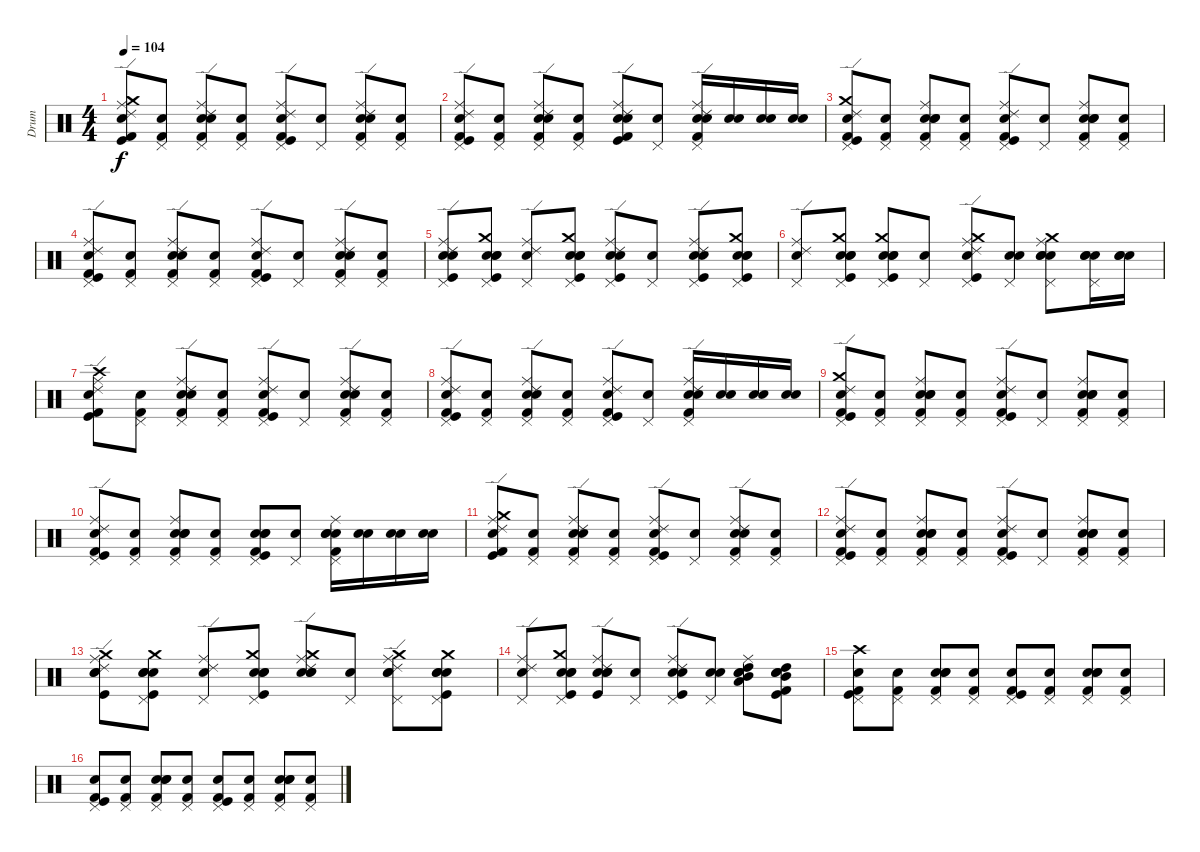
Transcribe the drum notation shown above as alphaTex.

\track ("Drum" "Drum") {instrument percussion}
\staff {score}
\articulation defaults
\ts (4 4)
\tempo 104
\clef neutral
\ks c
("Snare (hit)" "Kick (hit) 2" "Ride (middle)" "Ride (edge) 2" "Crash medium (hit)" "Kick (hit)").8{dy f} ("Snare (hit)" "Kick (hit) 2" "Pedal Hi-Hat (hit)").8 ("Snare (hit)" "Ride (middle)" "Ride (edge) 2" "Pedal Hi-Hat (hit)" "Snare (hit) 2" "Kick (hit) 2").8 ("Snare (hit)" "Kick (hit) 2" "Pedal Hi-Hat (hit)").8 ("Snare (hit)" "Kick (hit) 2" "Ride (middle)" "Ride (edge) 2" "Pedal Hi-Hat (hit)" "Kick (hit)").8 ("Snare (hit)" "Pedal Hi-Hat (hit)").8 ("Snare (hit)" "Ride (middle)" "Ride (edge) 2" "Pedal Hi-Hat (hit)" "Electric Snare (hit)" "Kick (hit) 2").8 ("Snare (hit)" "Kick (hit) 2" "Pedal Hi-Hat (hit)").8 |
("Snare (hit)" "Kick (hit) 2" "Ride (middle)" "Ride (edge) 2" "Kick (hit)" "Pedal Hi-Hat (hit)").8 ("Snare (hit)" "Kick (hit) 2" "Pedal Hi-Hat (hit)").8 ("Snare (hit)" "Ride (middle)" "Ride (edge) 2" "Kick (hit) 2" "Electric Snare (hit)" "Pedal Hi-Hat (hit)").8 ("Snare (hit)" "Kick (hit) 2" "Pedal Hi-Hat (hit)").8 ("Snare (hit)" "Kick (hit) 2" "Ride (middle)" "Ride (edge) 2" "Kick (hit)" "Snare (hit) 2").8 ("Snare (hit)" "Pedal Hi-Hat (hit)").8 ("Snare (hit)" "Ride (middle)" "Ride (edge) 2" "Kick (hit) 2" "Snare (hit) 2" "Pedal Hi-Hat (hit)").16 ("Snare (hit)" "Snare (hit) 2").16 ("Snare (hit)" "Snare (hit) 2").16 ("Snare (hit)" "Snare (hit) 2").16 |
("Snare (hit)" "Kick (hit)" "Pedal Hi-Hat (hit)" "Crash medium (hit)" "Ride (edge) 2" "Kick (hit) 2").8 ("Snare (hit)" "Pedal Hi-Hat (hit)" "Kick (hit) 2").8 ("Snare (hit)" "Kick (hit) 2" "Electric Snare (hit)" "Snare (hit) 2" "Pedal Hi-Hat (hit)" "Ride (middle)").8 ("Snare (hit)" "Pedal Hi-Hat (hit)" "Kick (hit) 2").8 ("Snare (hit)" "Kick (hit)" "Pedal Hi-Hat (hit)" "Ride (edge) 2" "Ride (middle)" "Kick (hit) 2").8 ("Snare (hit)" "Pedal Hi-Hat (hit)").8 ("Snare (hit)" "Kick (hit) 2" "Snare (hit) 2" "Electric Snare (hit)" "Pedal Hi-Hat (hit)" "Ride (middle)").8 ("Snare (hit)" "Pedal Hi-Hat (hit)" "Kick (hit) 2").8 |
("Snare (hit)" "Kick (hit) 2" "Ride (middle)" "Ride (edge) 2" "Pedal Hi-Hat (hit)" "Kick (hit)").8 ("Snare (hit)" "Kick (hit) 2" "Pedal Hi-Hat (hit)").8 ("Snare (hit)" "Ride (middle)" "Ride (edge) 2" "Pedal Hi-Hat (hit)" "Snare (hit) 2" "Kick (hit) 2").8 ("Snare (hit)" "Kick (hit) 2" "Pedal Hi-Hat (hit)").8 ("Snare (hit)" "Kick (hit) 2" "Ride (middle)" "Ride (edge) 2" "Pedal Hi-Hat (hit)" "Kick (hit)").8 ("Snare (hit)" "Pedal Hi-Hat (hit)").8 ("Snare (hit)" "Ride (middle)" "Ride (edge) 2" "Pedal Hi-Hat (hit)" "Electric Snare (hit)" "Kick (hit) 2").8 ("Snare (hit)" "Kick (hit) 2" "Pedal Hi-Hat (hit)").8 |
("Snare (hit)" "Kick (hit)" "Snare (hit) 2" "Pedal Hi-Hat (hit)" "Ride (edge) 2" "Ride (middle)").8 ("Snare (hit)" "Snare (hit) 2" "Pedal Hi-Hat (hit)" "Kick (hit)" "Crash medium (hit)" "Electric Snare (hit)").8 ("Snare (hit)" "Pedal Hi-Hat (hit)" "Ride (edge) 2" "Ride (middle)").8 ("Snare (hit)" "Kick (hit)" "Pedal Hi-Hat (hit)" "Snare (hit) 2" "Crash medium (hit)" "Electric Snare (hit)").8 ("Snare (hit)" "Snare (hit) 2" "Pedal Hi-Hat (hit)" "Kick (hit)" "Ride (edge) 2" "Ride (middle)").8 ("Snare (hit)" "Pedal Hi-Hat (hit)").8 ("Snare (hit)" "Pedal Hi-Hat (hit)" "Kick (hit)" "Snare (hit) 2" "Ride (edge) 2" "Ride (middle)").8 ("Snare (hit)" "Kick (hit)" "Snare (hit) 2" "Pedal Hi-Hat (hit)" "Crash medium (hit)" "Electric Snare (hit)").8 |
("Snare (hit)" "Pedal Hi-Hat (hit)" "Ride (edge) 2" "Ride (middle)").8 ("Snare (hit)" "Snare (hit) 2" "Crash medium (hit)" "Kick (hit)" "Electric Snare (hit)" "Pedal Hi-Hat (hit)").8 ("Snare (hit)" "Pedal Hi-Hat (hit)" "Crash medium (hit)" "Snare (hit) 2" "Electric Snare (hit)" "Kick (hit)").8 ("Snare (hit)" "Pedal Hi-Hat (hit)").8 ("Snare (hit)" "Pedal Hi-Hat (hit)" "Kick (hit)" "Ride (middle)" "Crash medium (hit)" "Ride (edge) 2").8 ("Snare (hit)" "Pedal Hi-Hat (hit)" "Snare (hit) 2").8 ("Snare (hit)" "Pedal Hi-Hat (hit)" "Crash medium (hit)" "Snare (hit) 2" "Ride (middle)" "Electric Snare (hit)").8 ("Snare (hit)" "Pedal Hi-Hat (hit)" "Snare (hit) 2" "Electric Snare (hit)").16 ("Snare (hit)" "Electric Snare (hit)" "Snare (hit) 2").16 |
("Snare (hit)" "Kick (hit) 2" "Ride (middle)" "Ride (edge) 2" "Crash high (hit)" "Kick (hit)").8 ("Snare (hit)" "Kick (hit) 2" "Pedal Hi-Hat (hit)").8 ("Snare (hit)" "Ride (middle)" "Ride (edge) 2" "Pedal Hi-Hat (hit)" "Snare (hit) 2" "Kick (hit) 2").8 ("Snare (hit)" "Kick (hit) 2" "Pedal Hi-Hat (hit)").8 ("Snare (hit)" "Kick (hit) 2" "Ride (middle)" "Ride (edge) 2" "Pedal Hi-Hat (hit)" "Kick (hit)").8 ("Snare (hit)" "Pedal Hi-Hat (hit)").8 ("Snare (hit)" "Ride (middle)" "Ride (edge) 2" "Pedal Hi-Hat (hit)" "Electric Snare (hit)" "Kick (hit) 2").8 ("Snare (hit)" "Kick (hit) 2" "Pedal Hi-Hat (hit)").8 |
("Snare (hit)" "Kick (hit) 2" "Ride (middle)" "Ride (edge) 2" "Kick (hit)" "Pedal Hi-Hat (hit)").8 ("Snare (hit)" "Kick (hit) 2" "Pedal Hi-Hat (hit)").8 ("Snare (hit)" "Ride (middle)" "Ride (edge) 2" "Kick (hit) 2" "Electric Snare (hit)" "Pedal Hi-Hat (hit)").8 ("Snare (hit)" "Kick (hit) 2" "Pedal Hi-Hat (hit)").8 ("Snare (hit)" "Kick (hit) 2" "Ride (middle)" "Ride (edge) 2" "Kick (hit)" "Pedal Hi-Hat (hit)").8 ("Snare (hit)" "Pedal Hi-Hat (hit)").8 ("Snare (hit)" "Ride (middle)" "Ride (edge) 2" "Kick (hit) 2" "Snare (hit) 2" "Pedal Hi-Hat (hit)").16 ("Snare (hit)" "Snare (hit) 2").16 ("Snare (hit)" "Snare (hit) 2").16 ("Snare (hit)" "Snare (hit) 2").16 |
("Snare (hit)" "Kick (hit)" "Pedal Hi-Hat (hit)" "Crash medium (hit)" "Ride (edge) 2" "Kick (hit) 2").8 ("Snare (hit)" "Pedal Hi-Hat (hit)" "Kick (hit) 2").8 ("Snare (hit)" "Kick (hit) 2" "Electric Snare (hit)" "Snare (hit) 2" "Pedal Hi-Hat (hit)" "Ride (middle)").8 ("Snare (hit)" "Pedal Hi-Hat (hit)" "Kick (hit) 2").8 ("Snare (hit)" "Kick (hit)" "Pedal Hi-Hat (hit)" "Ride (edge) 2" "Ride (middle)" "Kick (hit) 2").8 ("Snare (hit)" "Pedal Hi-Hat (hit)").8 ("Snare (hit)" "Kick (hit) 2" "Snare (hit) 2" "Electric Snare (hit)" "Pedal Hi-Hat (hit)" "Ride (middle)").8 ("Snare (hit)" "Pedal Hi-Hat (hit)" "Kick (hit) 2").8 |
("Snare (hit)" "Pedal Hi-Hat (hit)" "Kick (hit)" "Ride (edge) 2" "Ride (middle)" "Kick (hit) 2").8 ("Snare (hit)" "Pedal Hi-Hat (hit)" "Kick (hit) 2").8 ("Snare (hit)" "Pedal Hi-Hat (hit)" "Snare (hit) 2" "Electric Snare (hit)" "Kick (hit) 2" "Ride (middle)").8 ("Snare (hit)" "Pedal Hi-Hat (hit)" "Kick (hit) 2").8 ("Snare (hit)" "Snare (hit) 2" "Electric Snare (hit)" "Pedal Hi-Hat (hit)" "Kick (hit)" "Kick (hit) 2").8 ("Snare (hit)" "Pedal Hi-Hat (hit)").8 ("Snare (hit)" "Pedal Hi-Hat (hit)" "Electric Snare (hit)" "Snare (hit) 2" "Kick (hit) 2" "Ride (middle)").16 ("Snare (hit)" "Snare (hit) 2").16 ("Snare (hit)" "Snare (hit) 2").16 ("Snare (hit)" "Snare (hit) 2").16 |
("Snare (hit)" "Kick (hit) 2" "Ride (middle)" "Ride (edge) 2" "Crash medium (hit)" "Kick (hit)").8 ("Snare (hit)" "Kick (hit) 2" "Pedal Hi-Hat (hit)").8 ("Snare (hit)" "Ride (middle)" "Ride (edge) 2" "Pedal Hi-Hat (hit)" "Snare (hit) 2" "Kick (hit) 2").8 ("Snare (hit)" "Kick (hit) 2" "Pedal Hi-Hat (hit)").8 ("Snare (hit)" "Kick (hit) 2" "Ride (middle)" "Ride (edge) 2" "Pedal Hi-Hat (hit)" "Kick (hit)").8 ("Snare (hit)" "Pedal Hi-Hat (hit)").8 ("Snare (hit)" "Ride (middle)" "Ride (edge) 2" "Pedal Hi-Hat (hit)" "Electric Snare (hit)" "Kick (hit) 2").8 ("Snare (hit)" "Kick (hit) 2" "Pedal Hi-Hat (hit)").8 |
("Snare (hit)" "Kick (hit)" "Pedal Hi-Hat (hit)" "Ride (edge) 2" "Ride (middle)" "Kick (hit) 2").8 ("Snare (hit)" "Pedal Hi-Hat (hit)" "Kick (hit) 2").8 ("Snare (hit)" "Kick (hit) 2" "Electric Snare (hit)" "Snare (hit) 2" "Pedal Hi-Hat (hit)" "Ride (middle)").8 ("Snare (hit)" "Pedal Hi-Hat (hit)" "Kick (hit) 2").8 ("Snare (hit)" "Kick (hit)" "Pedal Hi-Hat (hit)" "Ride (edge) 2" "Ride (middle)" "Kick (hit) 2").8 ("Snare (hit)" "Pedal Hi-Hat (hit)").8 ("Snare (hit)" "Kick (hit) 2" "Snare (hit) 2" "Electric Snare (hit)" "Pedal Hi-Hat (hit)" "Ride (middle)").8 ("Snare (hit)" "Pedal Hi-Hat (hit)" "Kick (hit) 2").8 |
("Snare (hit)" "Ride (middle)" "Electric Snare (hit)" "Crash medium (hit)" "Ride (edge) 2" "Kick (hit)").8 ("Snare (hit)" "Electric Snare (hit)" "Crash medium (hit)" "Kick (hit)" "Pedal Hi-Hat (hit)" "Snare (hit) 2").8 ("Snare (hit)" "Ride (middle)" "Ride (edge) 2" "Pedal Hi-Hat (hit)").8 ("Snare (hit)" "Electric Snare (hit)" "Crash medium (hit)" "Snare (hit) 2" "Pedal Hi-Hat (hit)" "Kick (hit)").8 ("Snare (hit)" "Ride (middle)" "Electric Snare (hit)" "Crash medium (hit)" "Ride (edge) 2" "Snare (hit) 2").8 ("Snare (hit)" "Pedal Hi-Hat (hit)").8 ("Snare (hit)" "Ride (middle)" "Electric Snare (hit)" "Crash medium (hit)" "Ride (edge) 2" "Pedal Hi-Hat (hit)").8 ("Snare (hit)" "Electric Snare (hit)" "Crash medium (hit)" "Pedal Hi-Hat (hit)" "Snare (hit) 2" "Kick (hit)").8 |
("Snare (hit)" "Ride (middle)" "Pedal Hi-Hat (hit)" "Ride (edge) 2").8 ("Snare (hit)" "Electric Snare (hit)" "Crash medium (hit)" "Pedal Hi-Hat (hit)" "Snare (hit) 2" "Kick (hit)").8 ("Snare (hit)" "Ride (middle)" "Electric Snare (hit)" "Ride (edge) 2" "Snare (hit) 2" "Kick (hit)").8 ("Snare (hit)" "Pedal Hi-Hat (hit)").8 ("Snare (hit)" "Ride (edge) 2" "Snare (hit) 2" "Kick (hit)" "Pedal Hi-Hat (hit)" "Ride (middle)").8 ("Snare (hit)" "Snare (hit) 2" "Pedal Hi-Hat (hit)").8 ("Snare (hit)" "High Tom (hit)" "Mid Tom (hit)" "Low Tom (hit)" "Electric Snare (hit)" "Ride (middle)").8 ("Snare (hit)" "Kick (hit)" "Kick (hit) 2" "Mid Tom (hit)" "High Tom (hit)" "Electric Snare (hit)").8 |
("Snare (hit)" "Kick (hit) 2" "Pedal Hi-Hat (hit)" "Crash high (hit)" "Kick (hit)").8 ("Snare (hit)" "Pedal Hi-Hat (hit)" "Kick (hit) 2").8 ("Snare (hit)" "Kick (hit) 2" "Electric Snare (hit)" "Snare (hit) 2" "Pedal Hi-Hat (hit)").8 ("Snare (hit)" "Pedal Hi-Hat (hit)" "Kick (hit) 2").8 ("Snare (hit)" "Kick (hit) 2" "Pedal Hi-Hat (hit)" "Kick (hit)").8 ("Snare (hit)" "Pedal Hi-Hat (hit)" "Kick (hit) 2").8 ("Snare (hit)" "Kick (hit) 2" "Snare (hit) 2" "Electric Snare (hit)" "Pedal Hi-Hat (hit)").8 ("Snare (hit)" "Pedal Hi-Hat (hit)" "Kick (hit) 2").8 |
("Snare (hit)" "Pedal Hi-Hat (hit)" "Kick (hit) 2" "Kick (hit)").8 ("Snare (hit)" "Pedal Hi-Hat (hit)" "Kick (hit) 2").8 ("Snare (hit)" "Pedal Hi-Hat (hit)" "Snare (hit) 2" "Electric Snare (hit)" "Kick (hit) 2").8 ("Snare (hit)" "Pedal Hi-Hat (hit)" "Kick (hit) 2").8 ("Snare (hit)" "Pedal Hi-Hat (hit)" "Kick (hit) 2" "Kick (hit)").8 ("Snare (hit)" "Pedal Hi-Hat (hit)" "Kick (hit) 2").8 ("Snare (hit)" "Pedal Hi-Hat (hit)" "Electric Snare (hit)" "Snare (hit) 2" "Kick (hit) 2").8 ("Snare (hit)" "Pedal Hi-Hat (hit)" "Kick (hit) 2").8
